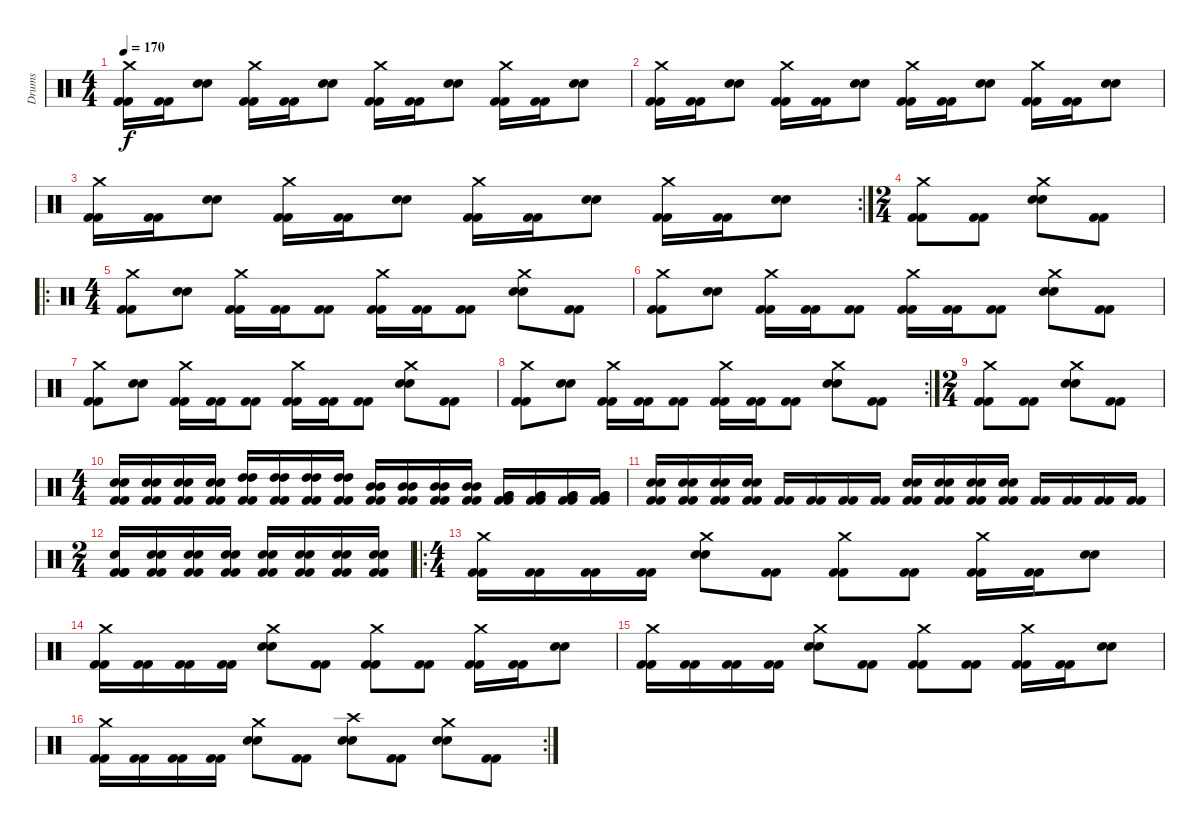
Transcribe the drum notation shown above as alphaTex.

\track ("Drums" "Drums") {instrument percussion}
\staff {score}
\articulation defaults
\ts (4 4)
\tempo 170
\clef neutral
\ks c
("Crash medium (hit)" "Kick (hit) 2" "Kick (hit) 2").16{dy f} ("Kick (hit) 2" "Kick (hit) 2").16 ("Snare (hit) 2" "Snare (hit) 2").8 ("Crash medium (hit)" "Kick (hit) 2" "Kick (hit) 2").16 ("Kick (hit) 2" "Kick (hit) 2").16 ("Snare (hit) 2" "Snare (hit) 2").8 ("Crash medium (hit)" "Kick (hit) 2" "Kick (hit) 2").16 ("Kick (hit) 2" "Kick (hit) 2").16 ("Snare (hit) 2" "Snare (hit) 2").8 ("Crash medium (hit)" "Kick (hit) 2" "Kick (hit) 2").16 ("Kick (hit) 2" "Kick (hit) 2").16 ("Snare (hit) 2" "Snare (hit) 2").8 |
("Crash medium (hit)" "Kick (hit) 2" "Kick (hit) 2").16 ("Kick (hit) 2" "Kick (hit) 2").16 ("Snare (hit) 2" "Snare (hit) 2").8 ("Crash medium (hit)" "Kick (hit) 2" "Kick (hit) 2").16 ("Kick (hit) 2" "Kick (hit) 2").16 ("Snare (hit) 2" "Snare (hit) 2").8 ("Crash medium (hit)" "Kick (hit) 2" "Kick (hit) 2").16 ("Kick (hit) 2" "Kick (hit) 2").16 ("Snare (hit) 2" "Snare (hit) 2").8 ("Crash medium (hit)" "Kick (hit) 2" "Kick (hit) 2").16 ("Kick (hit) 2" "Kick (hit) 2").16 ("Snare (hit) 2" "Snare (hit) 2").8 |
\rc 2
("Crash medium (hit)" "Kick (hit) 2" "Kick (hit) 2").16 ("Kick (hit) 2" "Kick (hit) 2").16 ("Snare (hit) 2" "Snare (hit) 2").8 ("Crash medium (hit)" "Kick (hit) 2" "Kick (hit) 2").16 ("Kick (hit) 2" "Kick (hit) 2").16 ("Snare (hit) 2" "Snare (hit) 2").8 ("Crash medium (hit)" "Kick (hit) 2" "Kick (hit) 2").16 ("Kick (hit) 2" "Kick (hit) 2").16 ("Snare (hit) 2" "Snare (hit) 2").8 ("Crash medium (hit)" "Kick (hit) 2" "Kick (hit) 2").16 ("Kick (hit) 2" "Kick (hit) 2").16 ("Snare (hit) 2" "Snare (hit) 2").8 |
\ts (2 4)
("Crash medium (hit)" "Kick (hit) 2" "Kick (hit) 2").8 ("Kick (hit) 2" "Kick (hit) 2").8 ("Crash medium (hit)" "Snare (hit) 2" "Snare (hit) 2").8 ("Kick (hit) 2" "Kick (hit) 2").8 |
\ro
\ts (4 4)
("Crash medium (hit)" "Kick (hit) 2" "Kick (hit) 2").8 ("Snare (hit) 2" "Snare (hit) 2").8 ("Crash medium (hit)" "Kick (hit) 2" "Kick (hit) 2").16 ("Kick (hit) 2" "Kick (hit) 2").16 ("Kick (hit) 2" "Kick (hit) 2").8 ("Crash medium (hit)" "Kick (hit) 2" "Kick (hit) 2").16 ("Kick (hit) 2" "Kick (hit) 2").16 ("Kick (hit) 2" "Kick (hit) 2").8 ("Crash medium (hit)" "Snare (hit) 2" "Snare (hit) 2").8 ("Kick (hit) 2" "Kick (hit) 2").8 |
("Crash medium (hit)" "Kick (hit) 2" "Kick (hit) 2").8 ("Snare (hit) 2" "Snare (hit) 2").8 ("Crash medium (hit)" "Kick (hit) 2" "Kick (hit) 2").16 ("Kick (hit) 2" "Kick (hit) 2").16 ("Kick (hit) 2" "Kick (hit) 2").8 ("Crash medium (hit)" "Kick (hit) 2" "Kick (hit) 2").16 ("Kick (hit) 2" "Kick (hit) 2").16 ("Kick (hit) 2" "Kick (hit) 2").8 ("Crash medium (hit)" "Snare (hit) 2" "Snare (hit) 2").8 ("Kick (hit) 2" "Kick (hit) 2").8 |
("Crash medium (hit)" "Kick (hit) 2" "Kick (hit) 2").8 ("Snare (hit) 2" "Snare (hit) 2").8 ("Crash medium (hit)" "Kick (hit) 2" "Kick (hit) 2").16 ("Kick (hit) 2" "Kick (hit) 2").16 ("Kick (hit) 2" "Kick (hit) 2").8 ("Crash medium (hit)" "Kick (hit) 2" "Kick (hit) 2").16 ("Kick (hit) 2" "Kick (hit) 2").16 ("Kick (hit) 2" "Kick (hit) 2").8 ("Crash medium (hit)" "Snare (hit) 2" "Snare (hit) 2").8 ("Kick (hit) 2" "Kick (hit) 2").8 |
\rc 2
("Crash medium (hit)" "Kick (hit) 2" "Kick (hit) 2").8 ("Snare (hit) 2" "Snare (hit) 2").8 ("Crash medium (hit)" "Kick (hit) 2" "Kick (hit) 2").16 ("Kick (hit) 2" "Kick (hit) 2").16 ("Kick (hit) 2" "Kick (hit) 2").8 ("Crash medium (hit)" "Kick (hit) 2" "Kick (hit) 2").16 ("Kick (hit) 2" "Kick (hit) 2").16 ("Kick (hit) 2" "Kick (hit) 2").8 ("Crash medium (hit)" "Snare (hit) 2" "Snare (hit) 2").8 ("Kick (hit) 2" "Kick (hit) 2").8 |
\ts (2 4)
("Crash medium (hit)" "Kick (hit) 2" "Kick (hit) 2").8 ("Kick (hit) 2" "Kick (hit) 2").8 ("Crash medium (hit)" "Snare (hit) 2" "Snare (hit) 2").8 ("Kick (hit) 2" "Kick (hit) 2").8 |
\ts (4 4)
("Snare (hit) 2" "Snare (hit) 2" "Kick (hit) 2" "Kick (hit) 2").16 ("Snare (hit) 2" "Snare (hit) 2" "Kick (hit) 2" "Kick (hit) 2").16 ("Snare (hit) 2" "Snare (hit) 2" "Kick (hit) 2" "Kick (hit) 2").16 ("Snare (hit) 2" "Snare (hit) 2" "Kick (hit) 2" "Kick (hit) 2").16 ("High Tom (hit)" "High Tom (hit)" "Kick (hit) 2" "Kick (hit) 2").16 ("High Tom (hit)" "High Tom (hit)" "Kick (hit) 2" "Kick (hit) 2").16 ("High Tom (hit)" "High Tom (hit)" "Kick (hit) 2" "Kick (hit) 2").16 ("High Tom (hit)" "High Tom (hit)" "Kick (hit) 2" "Kick (hit) 2").16 ("Mid Tom (hit)" "Mid Tom (hit)" "Kick (hit) 2" "Kick (hit) 2").16 ("Mid Tom (hit)" "Mid Tom (hit)" "Kick (hit) 2" "Kick (hit) 2").16 ("Mid Tom (hit)" "Mid Tom (hit)" "Kick (hit) 2" "Kick (hit) 2").16 ("Mid Tom (hit)" "Mid Tom (hit)" "Kick (hit) 2" "Kick (hit) 2").16 ("Very Low Tom (hit)" "Very Low Tom (hit)" "Kick (hit) 2" "Kick (hit) 2").16 ("Very Low Tom (hit)" "Very Low Tom (hit)" "Kick (hit) 2" "Kick (hit) 2").16 ("Very Low Tom (hit)" "Very Low Tom (hit)" "Kick (hit) 2" "Kick (hit) 2").16 ("Very Low Tom (hit)" "Very Low Tom (hit)" "Kick (hit) 2" "Kick (hit) 2").16 |
("Snare (hit) 2" "Snare (hit) 2" "Kick (hit) 2" "Kick (hit) 2").16 ("Snare (hit) 2" "Snare (hit) 2" "Kick (hit) 2" "Kick (hit) 2").16 ("Snare (hit) 2" "Snare (hit) 2" "Kick (hit) 2" "Kick (hit) 2").16 ("Snare (hit) 2" "Snare (hit) 2" "Kick (hit) 2" "Kick (hit) 2").16 ("Kick (hit) 2" "Kick (hit) 2").16 ("Kick (hit) 2" "Kick (hit) 2").16 ("Kick (hit) 2" "Kick (hit) 2").16 ("Kick (hit) 2" "Kick (hit) 2").16 ("Snare (hit) 2" "Snare (hit) 2" "Kick (hit) 2" "Kick (hit) 2").16 ("Snare (hit) 2" "Snare (hit) 2" "Kick (hit) 2" "Kick (hit) 2").16 ("Snare (hit) 2" "Snare (hit) 2" "Kick (hit) 2" "Kick (hit) 2").16 ("Snare (hit) 2" "Snare (hit) 2" "Kick (hit) 2" "Kick (hit) 2").16 ("Kick (hit) 2" "Kick (hit) 2").16 ("Kick (hit) 2" "Kick (hit) 2").16 ("Kick (hit) 2" "Kick (hit) 2").16 ("Kick (hit) 2" "Kick (hit) 2").16 |
\ts (2 4)
("Kick (hit) 2" "Kick (hit) 2" "Kick (hit) 2" "Snare (hit) 2").16 ("Kick (hit) 2" "Kick (hit) 2" "Snare (hit) 2" "Snare (hit) 2").16 ("Kick (hit) 2" "Kick (hit) 2" "Snare (hit) 2" "Snare (hit) 2").16 ("Kick (hit) 2" "Kick (hit) 2" "Snare (hit) 2" "Snare (hit) 2").16 ("Kick (hit) 2" "Kick (hit) 2" "Snare (hit) 2" "Snare (hit) 2").16 ("Kick (hit) 2" "Kick (hit) 2" "Snare (hit) 2" "Snare (hit) 2").16 ("Kick (hit) 2" "Kick (hit) 2" "Snare (hit) 2" "Snare (hit) 2").16 ("Kick (hit) 2" "Kick (hit) 2" "Snare (hit) 2" "Snare (hit) 2").16 |
\ro
\ts (4 4)
("Crash medium (hit)" "Kick (hit) 2" "Kick (hit) 2").16 ("Kick (hit) 2" "Kick (hit) 2").16 ("Kick (hit) 2" "Kick (hit) 2").16 ("Kick (hit) 2" "Kick (hit) 2").16 ("Crash medium (hit)" "Snare (hit) 2" "Snare (hit) 2").8 ("Kick (hit) 2" "Kick (hit) 2").8 ("Crash medium (hit)" "Kick (hit) 2" "Kick (hit) 2").8 ("Kick (hit) 2" "Kick (hit) 2").8 ("Crash medium (hit)" "Kick (hit) 2" "Kick (hit) 2").16 ("Kick (hit) 2" "Kick (hit) 2").16 ("Snare (hit) 2" "Snare (hit) 2").8 |
("Crash medium (hit)" "Kick (hit) 2" "Kick (hit) 2").16 ("Kick (hit) 2" "Kick (hit) 2").16 ("Kick (hit) 2" "Kick (hit) 2").16 ("Kick (hit) 2" "Kick (hit) 2").16 ("Crash medium (hit)" "Snare (hit) 2" "Snare (hit) 2").8 ("Kick (hit) 2" "Kick (hit) 2").8 ("Crash medium (hit)" "Kick (hit) 2" "Kick (hit) 2").8 ("Kick (hit) 2" "Kick (hit) 2").8 ("Crash medium (hit)" "Kick (hit) 2" "Kick (hit) 2").16 ("Kick (hit) 2" "Kick (hit) 2").16 ("Snare (hit) 2" "Snare (hit) 2").8 |
("Crash medium (hit)" "Kick (hit) 2" "Kick (hit) 2").16 ("Kick (hit) 2" "Kick (hit) 2").16 ("Kick (hit) 2" "Kick (hit) 2").16 ("Kick (hit) 2" "Kick (hit) 2").16 ("Crash medium (hit)" "Snare (hit) 2" "Snare (hit) 2").8 ("Kick (hit) 2" "Kick (hit) 2").8 ("Crash medium (hit)" "Kick (hit) 2" "Kick (hit) 2").8 ("Kick (hit) 2" "Kick (hit) 2").8 ("Crash medium (hit)" "Kick (hit) 2" "Kick (hit) 2").16 ("Kick (hit) 2" "Kick (hit) 2").16 ("Snare (hit) 2" "Snare (hit) 2").8 |
\rc 2
("Crash medium (hit)" "Kick (hit) 2" "Kick (hit) 2").16 ("Kick (hit) 2" "Kick (hit) 2").16 ("Kick (hit) 2" "Kick (hit) 2").16 ("Kick (hit) 2" "Kick (hit) 2").16 ("Crash medium (hit)" "Snare (hit) 2" "Snare (hit) 2").8 ("Kick (hit) 2" "Kick (hit) 2").8 ("Crash high (hit)" "Snare (hit) 2" "Snare (hit) 2").8 ("Kick (hit) 2" "Kick (hit) 2").8 ("Crash medium (hit)" "Snare (hit) 2" "Snare (hit) 2").8 ("Kick (hit) 2" "Kick (hit) 2").8
